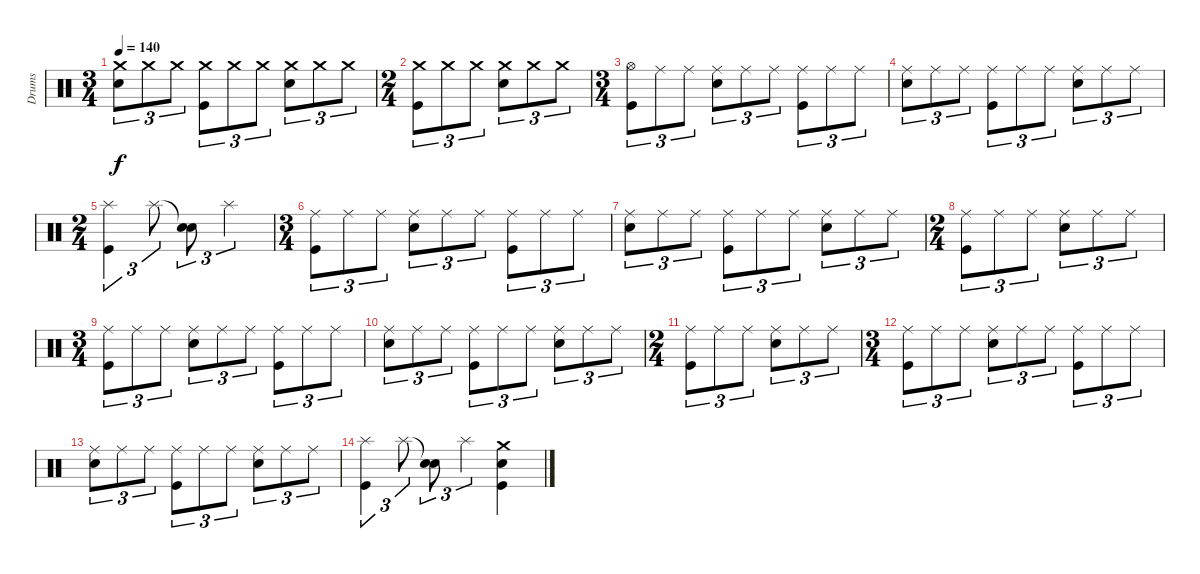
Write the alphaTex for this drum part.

\track ("Drums" "Drums") {instrument percussion}
\staff {score}
\articulation defaults
\ts (3 4)
\tempo 140
\clef neutral
\ks c
("Crash medium (hit)" "Electric Snare (hit)").8{tu (3 2) dy f} "Crash medium (hit)".8{tu (3 2)} "Crash medium (hit)".8{tu (3 2)} ("Crash medium (hit)" "Kick (hit)").8{tu (3 2)} "Crash medium (hit)".8{tu (3 2)} "Crash medium (hit)".8{tu (3 2)} ("Crash medium (hit)" "Electric Snare (hit)").8{tu (3 2)} "Crash medium (hit)".8{tu (3 2)} "Crash medium (hit)".8{tu (3 2)} |
\ts (2 4)
("Crash medium (hit)" "Kick (hit)").8{tu (3 2)} "Crash medium (hit)".8{tu (3 2)} "Crash medium (hit)".8{tu (3 2)} ("Crash medium (hit)" "Electric Snare (hit)").8{tu (3 2)} "Crash medium (hit)".8{tu (3 2)} "Crash medium (hit)".8{tu (3 2)} |
\ts (3 4)
("Hi-Hat (open)" "Kick (hit)").8{tu (3 2)} "Ride (middle)".8{tu (3 2)} "Ride (middle)".8{tu (3 2)} ("Ride (middle)" "Electric Snare (hit)").8{tu (3 2)} "Ride (middle)".8{tu (3 2)} "Ride (middle)".8{tu (3 2)} ("Ride (middle)" "Kick (hit)").8{tu (3 2)} "Ride (middle)".8{tu (3 2)} "Ride (middle)".8{tu (3 2)} |
("Ride (middle)" "Electric Snare (hit)").8{tu (3 2)} "Ride (middle)".8{tu (3 2)} "Ride (middle)".8{tu (3 2)} ("Ride (middle)" "Kick (hit)").8{tu (3 2)} "Ride (middle)".8{tu (3 2)} "Ride (middle)".8{tu (3 2)} ("Ride (middle)" "Electric Snare (hit)").8{tu (3 2)} "Ride (middle)".8{tu (3 2)} "Ride (middle)".8{tu (3 2)} |
\ts (2 4)
("Splash (hit)" "Kick (hit)").4{tu (3 2)} "Splash (hit)".8{tu (3 2)} ("Snare (hit)"{t} "Electric Snare (hit)").8{tu (3 2)} "Splash (hit)".4{tu (3 2)} |
\ts (3 4)
("Ride (middle)" "Kick (hit)").8{tu (3 2)} "Ride (middle)".8{tu (3 2)} "Ride (middle)".8{tu (3 2)} ("Ride (middle)" "Electric Snare (hit)").8{tu (3 2)} "Ride (middle)".8{tu (3 2)} "Ride (middle)".8{tu (3 2)} ("Ride (middle)" "Kick (hit)").8{tu (3 2)} "Ride (middle)".8{tu (3 2)} "Ride (middle)".8{tu (3 2)} |
("Ride (middle)" "Electric Snare (hit)").8{tu (3 2)} "Ride (middle)".8{tu (3 2)} "Ride (middle)".8{tu (3 2)} ("Ride (middle)" "Kick (hit)").8{tu (3 2)} "Ride (middle)".8{tu (3 2)} "Ride (middle)".8{tu (3 2)} ("Ride (middle)" "Electric Snare (hit)").8{tu (3 2)} "Ride (middle)".8{tu (3 2)} "Ride (middle)".8{tu (3 2)} |
\ts (2 4)
("Ride (middle)" "Kick (hit)").8{tu (3 2)} "Ride (middle)".8{tu (3 2)} "Ride (middle)".8{tu (3 2)} ("Ride (middle)" "Electric Snare (hit)").8{tu (3 2)} "Ride (middle)".8{tu (3 2)} "Ride (middle)".8{tu (3 2)} |
\ts (3 4)
("Ride (middle)" "Kick (hit)").8{tu (3 2)} "Ride (middle)".8{tu (3 2)} "Ride (middle)".8{tu (3 2)} ("Ride (middle)" "Electric Snare (hit)").8{tu (3 2)} "Ride (middle)".8{tu (3 2)} "Ride (middle)".8{tu (3 2)} ("Ride (middle)" "Kick (hit)").8{tu (3 2)} "Ride (middle)".8{tu (3 2)} "Ride (middle)".8{tu (3 2)} |
("Ride (middle)" "Electric Snare (hit)").8{tu (3 2)} "Ride (middle)".8{tu (3 2)} "Ride (middle)".8{tu (3 2)} ("Ride (middle)" "Kick (hit)").8{tu (3 2)} "Ride (middle)".8{tu (3 2)} "Ride (middle)".8{tu (3 2)} ("Ride (middle)" "Electric Snare (hit)").8{tu (3 2)} "Ride (middle)".8{tu (3 2)} "Ride (middle)".8{tu (3 2)} |
\ts (2 4)
("Ride (middle)" "Kick (hit)").8{tu (3 2)} "Ride (middle)".8{tu (3 2)} "Ride (middle)".8{tu (3 2)} ("Ride (middle)" "Electric Snare (hit)").8{tu (3 2)} "Ride (middle)".8{tu (3 2)} "Ride (middle)".8{tu (3 2)} |
\ts (3 4)
("Ride (middle)" "Kick (hit)").8{tu (3 2)} "Ride (middle)".8{tu (3 2)} "Ride (middle)".8{tu (3 2)} ("Ride (middle)" "Electric Snare (hit)").8{tu (3 2)} "Ride (middle)".8{tu (3 2)} "Ride (middle)".8{tu (3 2)} ("Ride (middle)" "Kick (hit)").8{tu (3 2)} "Ride (middle)".8{tu (3 2)} "Ride (middle)".8{tu (3 2)} |
("Ride (middle)" "Electric Snare (hit)").8{tu (3 2)} "Ride (middle)".8{tu (3 2)} "Ride (middle)".8{tu (3 2)} ("Ride (middle)" "Kick (hit)").8{tu (3 2)} "Ride (middle)".8{tu (3 2)} "Ride (middle)".8{tu (3 2)} ("Ride (middle)" "Electric Snare (hit)").8{tu (3 2)} "Ride (middle)".8{tu (3 2)} "Ride (middle)".8{tu (3 2)} |
("Splash (hit)" "Kick (hit)").4{tu (3 2)} "Splash (hit)".8{tu (3 2)} ("Snare (hit)"{t} "Electric Snare (hit)").8{tu (3 2)} "Splash (hit)".4{tu (3 2)} ("Crash medium (hit)" "Electric Snare (hit)" "Kick (hit)").4
